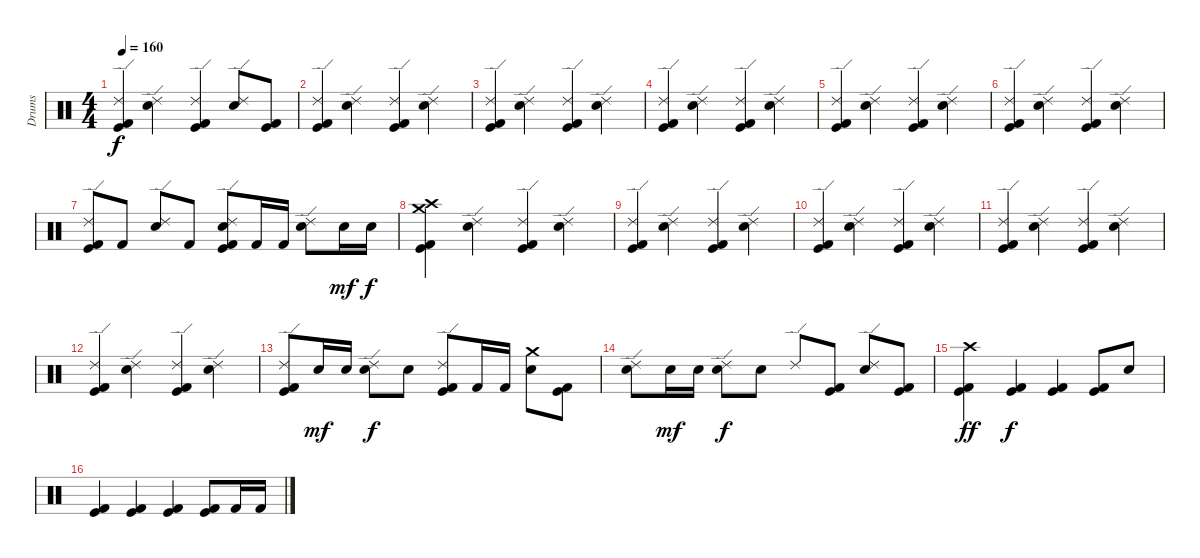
\track ("Drums" "Drums") {instrument percussion}
\staff {score}
\articulation defaults
\ts (4 4)
\tempo 160
\clef neutral
\ks c
("Ride (edge) 2" "Kick (hit)" "Kick (hit) 2").4{dy f} ("Ride (edge) 2" "Snare (hit) 2").4 ("Ride (edge) 2" "Kick (hit)" "Kick (hit) 2").4 ("Ride (edge) 2" "Snare (hit) 2").8 ("Kick (hit)" "Kick (hit) 2").8 |
("Ride (edge) 2" "Kick (hit)" "Kick (hit) 2").4 ("Ride (edge) 2" "Snare (hit) 2").4 ("Ride (edge) 2" "Kick (hit)" "Kick (hit) 2").4 ("Ride (edge) 2" "Snare (hit) 2").4 |
("Ride (edge) 2" "Kick (hit)" "Kick (hit) 2").4 ("Ride (edge) 2" "Snare (hit) 2").4 ("Ride (edge) 2" "Kick (hit)" "Kick (hit) 2").4 ("Ride (edge) 2" "Snare (hit) 2").4 |
("Ride (edge) 2" "Kick (hit)" "Kick (hit) 2").4 ("Ride (edge) 2" "Snare (hit) 2").4 ("Ride (edge) 2" "Kick (hit)" "Kick (hit) 2").4 ("Ride (edge) 2" "Snare (hit) 2").4 |
("Ride (edge) 2" "Kick (hit)" "Kick (hit) 2").4 ("Ride (edge) 2" "Snare (hit) 2").4 ("Ride (edge) 2" "Kick (hit)" "Kick (hit) 2").4 ("Ride (edge) 2" "Snare (hit) 2").4 |
("Ride (edge) 2" "Kick (hit)" "Kick (hit) 2").4 ("Ride (edge) 2" "Snare (hit) 2").4 ("Ride (edge) 2" "Kick (hit)" "Kick (hit) 2").4 ("Ride (edge) 2" "Snare (hit) 2").4 |
("Ride (edge) 2" "Kick (hit)" "Kick (hit) 2").8 "Kick (hit) 2".8 ("Ride (edge) 2" "Snare (hit) 2").8 "Kick (hit) 2".8 ("Ride (edge) 2" "Snare (hit) 2" "Kick (hit)" "Kick (hit) 2").8 "Kick (hit) 2".16 "Kick (hit) 2".16 ("Ride (edge) 2" "Snare (hit) 2").8 "Snare (hit) 2".16{dy mf} "Snare (hit) 2".16{dy f} |
("Crash medium (hit)" "Crash high (hit)" "Kick (hit)" "Kick (hit) 2").4 ("Ride (edge) 2" "Snare (hit) 2").4 ("Ride (edge) 2" "Kick (hit)" "Kick (hit) 2").4 ("Ride (edge) 2" "Snare (hit) 2").4 |
("Ride (edge) 2" "Kick (hit)" "Kick (hit) 2").4 ("Ride (edge) 2" "Snare (hit) 2").4 ("Ride (edge) 2" "Kick (hit)" "Kick (hit) 2").4 ("Ride (edge) 2" "Snare (hit) 2").4 |
("Ride (edge) 2" "Kick (hit)" "Kick (hit) 2").4 ("Ride (edge) 2" "Snare (hit) 2").4 ("Ride (edge) 2" "Kick (hit)" "Kick (hit) 2").4 ("Ride (edge) 2" "Snare (hit) 2").4 |
("Ride (edge) 2" "Kick (hit)" "Kick (hit) 2").4 ("Ride (edge) 2" "Snare (hit) 2").4 ("Ride (edge) 2" "Kick (hit)" "Kick (hit) 2").4 ("Ride (edge) 2" "Snare (hit) 2").4 |
("Ride (edge) 2" "Kick (hit)" "Kick (hit) 2").4 ("Ride (edge) 2" "Snare (hit) 2").4 ("Ride (edge) 2" "Kick (hit)" "Kick (hit) 2").4 ("Ride (edge) 2" "Snare (hit) 2").4 |
("Ride (edge) 2" "Kick (hit)" "Kick (hit) 2").8 "Electric Snare (hit)".16{dy mf} "Electric Snare (hit)".16 ("Ride (edge) 2" "Snare (hit) 2").8{dy f} "Electric Snare (hit)".8 ("Ride (edge) 2" "Kick (hit)" "Kick (hit) 2").8 "Kick (hit) 2".16 "Kick (hit) 2".16 ("Crash medium (hit)" "Snare (hit) 2").8 ("Kick (hit)" "Kick (hit) 2").8 |
("Ride (edge) 2" "Snare (hit) 2").8 "Snare (hit) 2".16{dy mf} "Snare (hit) 2".16 ("Ride (edge) 2" "Snare (hit) 2").8{dy f} "Snare (hit) 2".8 "Ride (edge) 2".8 ("Kick (hit)" "Kick (hit) 2").8 ("Ride (edge) 2" "Snare (hit) 2").8 ("Kick (hit)" "Kick (hit) 2").8 |
("Crash high (hit)" "Kick (hit)" "Kick (hit) 2").4{dy ff} ("Kick (hit)" "Kick (hit) 2").4{dy f} ("Kick (hit)" "Kick (hit) 2").4 ("Kick (hit)" "Kick (hit) 2").8 "Snare (hit) 2".8 |
("Kick (hit)" "Kick (hit) 2").4 ("Kick (hit)" "Kick (hit) 2").4 ("Kick (hit)" "Kick (hit) 2").4 ("Kick (hit)" "Kick (hit) 2").8 "Kick (hit) 2".16 "Kick (hit) 2".16
